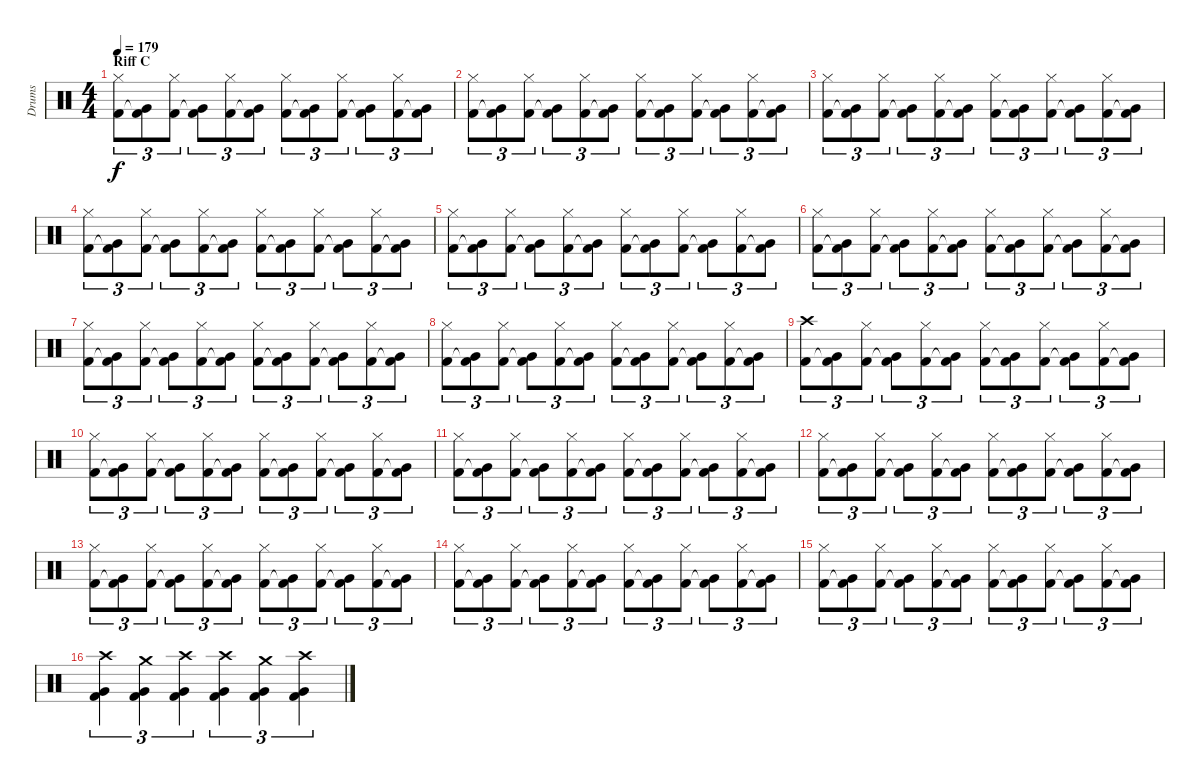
\track ("Drums" "Drums") {instrument percussion}
\staff {score}
\articulation defaults
\ts (4 4)
\section ("" "Riff C")
\tempo 179
\clef neutral
\ks c
("Hi-Hat (closed)" "Kick (hit) 2").8{tu (3 2) dy f} ("Very Low Tom (hit)" "Kick (hit) 2"{t}).8{tu (3 2)} ("Hi-Hat (closed)" "Kick (hit) 2").8{tu (3 2)} ("Very Low Tom (hit)" "Kick (hit) 2"{t}).8{tu (3 2)} ("Hi-Hat (closed)" "Kick (hit) 2").8{tu (3 2)} ("Very Low Tom (hit)" "Kick (hit) 2"{t}).8{tu (3 2)} ("Hi-Hat (closed)" "Kick (hit) 2").8{tu (3 2)} ("Very Low Tom (hit)" "Kick (hit) 2"{t}).8{tu (3 2)} ("Hi-Hat (closed)" "Kick (hit) 2").8{tu (3 2)} ("Very Low Tom (hit)" "Kick (hit) 2"{t}).8{tu (3 2)} ("Hi-Hat (closed)" "Kick (hit) 2").8{tu (3 2)} ("Very Low Tom (hit)" "Kick (hit) 2"{t}).8{tu (3 2)} |
("Hi-Hat (closed)" "Kick (hit) 2").8{tu (3 2)} ("Very Low Tom (hit)" "Kick (hit) 2"{t}).8{tu (3 2)} ("Hi-Hat (closed)" "Kick (hit) 2").8{tu (3 2)} ("Very Low Tom (hit)" "Kick (hit) 2"{t}).8{tu (3 2)} ("Hi-Hat (closed)" "Kick (hit) 2").8{tu (3 2)} ("Very Low Tom (hit)" "Kick (hit) 2"{t}).8{tu (3 2)} ("Hi-Hat (closed)" "Kick (hit) 2").8{tu (3 2)} ("Very Low Tom (hit)" "Kick (hit) 2"{t}).8{tu (3 2)} ("Hi-Hat (closed)" "Kick (hit) 2").8{tu (3 2)} ("Very Low Tom (hit)" "Kick (hit) 2"{t}).8{tu (3 2)} ("Hi-Hat (closed)" "Kick (hit) 2").8{tu (3 2)} ("Very Low Tom (hit)" "Kick (hit) 2"{t}).8{tu (3 2)} |
("Hi-Hat (closed)" "Kick (hit) 2").8{tu (3 2)} ("Very Low Tom (hit)" "Kick (hit) 2"{t}).8{tu (3 2)} ("Hi-Hat (closed)" "Kick (hit) 2").8{tu (3 2)} ("Very Low Tom (hit)" "Kick (hit) 2"{t}).8{tu (3 2)} ("Hi-Hat (closed)" "Kick (hit) 2").8{tu (3 2)} ("Very Low Tom (hit)" "Kick (hit) 2"{t}).8{tu (3 2)} ("Hi-Hat (closed)" "Kick (hit) 2").8{tu (3 2)} ("Very Low Tom (hit)" "Kick (hit) 2"{t}).8{tu (3 2)} ("Hi-Hat (closed)" "Kick (hit) 2").8{tu (3 2)} ("Very Low Tom (hit)" "Kick (hit) 2"{t}).8{tu (3 2)} ("Hi-Hat (closed)" "Kick (hit) 2").8{tu (3 2)} ("Very Low Tom (hit)" "Kick (hit) 2"{t}).8{tu (3 2)} |
("Hi-Hat (closed)" "Kick (hit) 2").8{tu (3 2)} ("Very Low Tom (hit)" "Kick (hit) 2"{t}).8{tu (3 2)} ("Hi-Hat (closed)" "Kick (hit) 2").8{tu (3 2)} ("Very Low Tom (hit)" "Kick (hit) 2"{t}).8{tu (3 2)} ("Hi-Hat (closed)" "Kick (hit) 2").8{tu (3 2)} ("Very Low Tom (hit)" "Kick (hit) 2"{t}).8{tu (3 2)} ("Hi-Hat (closed)" "Kick (hit) 2").8{tu (3 2)} ("Very Low Tom (hit)" "Kick (hit) 2"{t}).8{tu (3 2)} ("Hi-Hat (closed)" "Kick (hit) 2").8{tu (3 2)} ("Very Low Tom (hit)" "Kick (hit) 2"{t}).8{tu (3 2)} ("Hi-Hat (closed)" "Kick (hit) 2").8{tu (3 2)} ("Very Low Tom (hit)" "Kick (hit) 2"{t}).8{tu (3 2)} |
("Hi-Hat (closed)" "Kick (hit) 2").8{tu (3 2)} ("Very Low Tom (hit)" "Kick (hit) 2"{t}).8{tu (3 2)} ("Hi-Hat (closed)" "Kick (hit) 2").8{tu (3 2)} ("Very Low Tom (hit)" "Kick (hit) 2"{t}).8{tu (3 2)} ("Hi-Hat (closed)" "Kick (hit) 2").8{tu (3 2)} ("Very Low Tom (hit)" "Kick (hit) 2"{t}).8{tu (3 2)} ("Hi-Hat (closed)" "Kick (hit) 2").8{tu (3 2)} ("Very Low Tom (hit)" "Kick (hit) 2"{t}).8{tu (3 2)} ("Hi-Hat (closed)" "Kick (hit) 2").8{tu (3 2)} ("Very Low Tom (hit)" "Kick (hit) 2"{t}).8{tu (3 2)} ("Hi-Hat (closed)" "Kick (hit) 2").8{tu (3 2)} ("Very Low Tom (hit)" "Kick (hit) 2"{t}).8{tu (3 2)} |
("Hi-Hat (closed)" "Kick (hit) 2").8{tu (3 2)} ("Very Low Tom (hit)" "Kick (hit) 2"{t}).8{tu (3 2)} ("Hi-Hat (closed)" "Kick (hit) 2").8{tu (3 2)} ("Very Low Tom (hit)" "Kick (hit) 2"{t}).8{tu (3 2)} ("Hi-Hat (closed)" "Kick (hit) 2").8{tu (3 2)} ("Very Low Tom (hit)" "Kick (hit) 2"{t}).8{tu (3 2)} ("Hi-Hat (closed)" "Kick (hit) 2").8{tu (3 2)} ("Very Low Tom (hit)" "Kick (hit) 2"{t}).8{tu (3 2)} ("Hi-Hat (closed)" "Kick (hit) 2").8{tu (3 2)} ("Very Low Tom (hit)" "Kick (hit) 2"{t}).8{tu (3 2)} ("Hi-Hat (closed)" "Kick (hit) 2").8{tu (3 2)} ("Very Low Tom (hit)" "Kick (hit) 2"{t}).8{tu (3 2)} |
("Hi-Hat (closed)" "Kick (hit) 2").8{tu (3 2)} ("Very Low Tom (hit)" "Kick (hit) 2"{t}).8{tu (3 2)} ("Hi-Hat (closed)" "Kick (hit) 2").8{tu (3 2)} ("Very Low Tom (hit)" "Kick (hit) 2"{t}).8{tu (3 2)} ("Hi-Hat (closed)" "Kick (hit) 2").8{tu (3 2)} ("Very Low Tom (hit)" "Kick (hit) 2"{t}).8{tu (3 2)} ("Hi-Hat (closed)" "Kick (hit) 2").8{tu (3 2)} ("Very Low Tom (hit)" "Kick (hit) 2"{t}).8{tu (3 2)} ("Hi-Hat (closed)" "Kick (hit) 2").8{tu (3 2)} ("Very Low Tom (hit)" "Kick (hit) 2"{t}).8{tu (3 2)} ("Hi-Hat (closed)" "Kick (hit) 2").8{tu (3 2)} ("Very Low Tom (hit)" "Kick (hit) 2"{t}).8{tu (3 2)} |
("Hi-Hat (closed)" "Kick (hit) 2").8{tu (3 2)} ("Very Low Tom (hit)" "Kick (hit) 2"{t}).8{tu (3 2)} ("Hi-Hat (closed)" "Kick (hit) 2").8{tu (3 2)} ("Very Low Tom (hit)" "Kick (hit) 2"{t}).8{tu (3 2)} ("Hi-Hat (closed)" "Kick (hit) 2").8{tu (3 2)} ("Very Low Tom (hit)" "Kick (hit) 2"{t}).8{tu (3 2)} ("Hi-Hat (closed)" "Kick (hit) 2").8{tu (3 2)} ("Very Low Tom (hit)" "Kick (hit) 2"{t}).8{tu (3 2)} ("Hi-Hat (closed)" "Kick (hit) 2").8{tu (3 2)} ("Very Low Tom (hit)" "Kick (hit) 2"{t}).8{tu (3 2)} ("Hi-Hat (closed)" "Kick (hit) 2").8{tu (3 2)} ("Very Low Tom (hit)" "Kick (hit) 2"{t}).8{tu (3 2)} |
("Crash high (hit)" "Kick (hit) 2").8{tu (3 2)} ("Very Low Tom (hit)" "Kick (hit) 2"{t}).8{tu (3 2)} ("Hi-Hat (closed)" "Kick (hit) 2").8{tu (3 2)} ("Very Low Tom (hit)" "Kick (hit) 2"{t}).8{tu (3 2)} ("Hi-Hat (closed)" "Kick (hit) 2").8{tu (3 2)} ("Very Low Tom (hit)" "Kick (hit) 2"{t}).8{tu (3 2)} ("Hi-Hat (closed)" "Kick (hit) 2").8{tu (3 2)} ("Very Low Tom (hit)" "Kick (hit) 2"{t}).8{tu (3 2)} ("Hi-Hat (closed)" "Kick (hit) 2").8{tu (3 2)} ("Very Low Tom (hit)" "Kick (hit) 2"{t}).8{tu (3 2)} ("Hi-Hat (closed)" "Kick (hit) 2").8{tu (3 2)} ("Very Low Tom (hit)" "Kick (hit) 2"{t}).8{tu (3 2)} |
("Hi-Hat (closed)" "Kick (hit) 2").8{tu (3 2)} ("Very Low Tom (hit)" "Kick (hit) 2"{t}).8{tu (3 2)} ("Hi-Hat (closed)" "Kick (hit) 2").8{tu (3 2)} ("Very Low Tom (hit)" "Kick (hit) 2"{t}).8{tu (3 2)} ("Hi-Hat (closed)" "Kick (hit) 2").8{tu (3 2)} ("Very Low Tom (hit)" "Kick (hit) 2"{t}).8{tu (3 2)} ("Hi-Hat (closed)" "Kick (hit) 2").8{tu (3 2)} ("Very Low Tom (hit)" "Kick (hit) 2"{t}).8{tu (3 2)} ("Hi-Hat (closed)" "Kick (hit) 2").8{tu (3 2)} ("Very Low Tom (hit)" "Kick (hit) 2"{t}).8{tu (3 2)} ("Hi-Hat (closed)" "Kick (hit) 2").8{tu (3 2)} ("Very Low Tom (hit)" "Kick (hit) 2"{t}).8{tu (3 2)} |
("Hi-Hat (closed)" "Kick (hit) 2").8{tu (3 2)} ("Very Low Tom (hit)" "Kick (hit) 2"{t}).8{tu (3 2)} ("Hi-Hat (closed)" "Kick (hit) 2").8{tu (3 2)} ("Very Low Tom (hit)" "Kick (hit) 2"{t}).8{tu (3 2)} ("Hi-Hat (closed)" "Kick (hit) 2").8{tu (3 2)} ("Very Low Tom (hit)" "Kick (hit) 2"{t}).8{tu (3 2)} ("Hi-Hat (closed)" "Kick (hit) 2").8{tu (3 2)} ("Very Low Tom (hit)" "Kick (hit) 2"{t}).8{tu (3 2)} ("Hi-Hat (closed)" "Kick (hit) 2").8{tu (3 2)} ("Very Low Tom (hit)" "Kick (hit) 2"{t}).8{tu (3 2)} ("Hi-Hat (closed)" "Kick (hit) 2").8{tu (3 2)} ("Very Low Tom (hit)" "Kick (hit) 2"{t}).8{tu (3 2)} |
("Hi-Hat (closed)" "Kick (hit) 2").8{tu (3 2)} ("Very Low Tom (hit)" "Kick (hit) 2"{t}).8{tu (3 2)} ("Hi-Hat (closed)" "Kick (hit) 2").8{tu (3 2)} ("Very Low Tom (hit)" "Kick (hit) 2"{t}).8{tu (3 2)} ("Hi-Hat (closed)" "Kick (hit) 2").8{tu (3 2)} ("Very Low Tom (hit)" "Kick (hit) 2"{t}).8{tu (3 2)} ("Hi-Hat (closed)" "Kick (hit) 2").8{tu (3 2)} ("Very Low Tom (hit)" "Kick (hit) 2"{t}).8{tu (3 2)} ("Hi-Hat (closed)" "Kick (hit) 2").8{tu (3 2)} ("Very Low Tom (hit)" "Kick (hit) 2"{t}).8{tu (3 2)} ("Hi-Hat (closed)" "Kick (hit) 2").8{tu (3 2)} ("Very Low Tom (hit)" "Kick (hit) 2"{t}).8{tu (3 2)} |
("Hi-Hat (closed)" "Kick (hit) 2").8{tu (3 2)} ("Very Low Tom (hit)" "Kick (hit) 2"{t}).8{tu (3 2)} ("Hi-Hat (closed)" "Kick (hit) 2").8{tu (3 2)} ("Very Low Tom (hit)" "Kick (hit) 2"{t}).8{tu (3 2)} ("Hi-Hat (closed)" "Kick (hit) 2").8{tu (3 2)} ("Very Low Tom (hit)" "Kick (hit) 2"{t}).8{tu (3 2)} ("Hi-Hat (closed)" "Kick (hit) 2").8{tu (3 2)} ("Very Low Tom (hit)" "Kick (hit) 2"{t}).8{tu (3 2)} ("Hi-Hat (closed)" "Kick (hit) 2").8{tu (3 2)} ("Very Low Tom (hit)" "Kick (hit) 2"{t}).8{tu (3 2)} ("Hi-Hat (closed)" "Kick (hit) 2").8{tu (3 2)} ("Very Low Tom (hit)" "Kick (hit) 2"{t}).8{tu (3 2)} |
("Hi-Hat (closed)" "Kick (hit) 2").8{tu (3 2)} ("Very Low Tom (hit)" "Kick (hit) 2"{t}).8{tu (3 2)} ("Hi-Hat (closed)" "Kick (hit) 2").8{tu (3 2)} ("Very Low Tom (hit)" "Kick (hit) 2"{t}).8{tu (3 2)} ("Hi-Hat (closed)" "Kick (hit) 2").8{tu (3 2)} ("Very Low Tom (hit)" "Kick (hit) 2"{t}).8{tu (3 2)} ("Hi-Hat (closed)" "Kick (hit) 2").8{tu (3 2)} ("Very Low Tom (hit)" "Kick (hit) 2"{t}).8{tu (3 2)} ("Hi-Hat (closed)" "Kick (hit) 2").8{tu (3 2)} ("Very Low Tom (hit)" "Kick (hit) 2"{t}).8{tu (3 2)} ("Hi-Hat (closed)" "Kick (hit) 2").8{tu (3 2)} ("Very Low Tom (hit)" "Kick (hit) 2"{t}).8{tu (3 2)} |
("Hi-Hat (closed)" "Kick (hit) 2").8{tu (3 2)} ("Very Low Tom (hit)" "Kick (hit) 2"{t}).8{tu (3 2)} ("Hi-Hat (closed)" "Kick (hit) 2").8{tu (3 2)} ("Very Low Tom (hit)" "Kick (hit) 2"{t}).8{tu (3 2)} ("Hi-Hat (closed)" "Kick (hit) 2").8{tu (3 2)} ("Very Low Tom (hit)" "Kick (hit) 2"{t}).8{tu (3 2)} ("Hi-Hat (closed)" "Kick (hit) 2").8{tu (3 2)} ("Very Low Tom (hit)" "Kick (hit) 2"{t}).8{tu (3 2)} ("Hi-Hat (closed)" "Kick (hit) 2").8{tu (3 2)} ("Very Low Tom (hit)" "Kick (hit) 2"{t}).8{tu (3 2)} ("Hi-Hat (closed)" "Kick (hit) 2").8{tu (3 2)} ("Very Low Tom (hit)" "Kick (hit) 2"{t}).8{tu (3 2)} |
("Crash high (hit)" "Very Low Tom (hit)" "Kick (hit) 2").4{tu (3 2)} ("Crash medium (hit)" "Very Low Tom (hit)" "Kick (hit) 2").4{tu (3 2)} ("Crash high (hit)" "Very Low Tom (hit)" "Kick (hit) 2").4{tu (3 2)} ("Crash high (hit)" "Very Low Tom (hit)" "Kick (hit) 2").4{tu (3 2)} ("Crash medium (hit)" "Very Low Tom (hit)" "Kick (hit) 2").4{tu (3 2)} ("Crash high (hit)" "Very Low Tom (hit)" "Kick (hit) 2").4{tu (3 2)}
